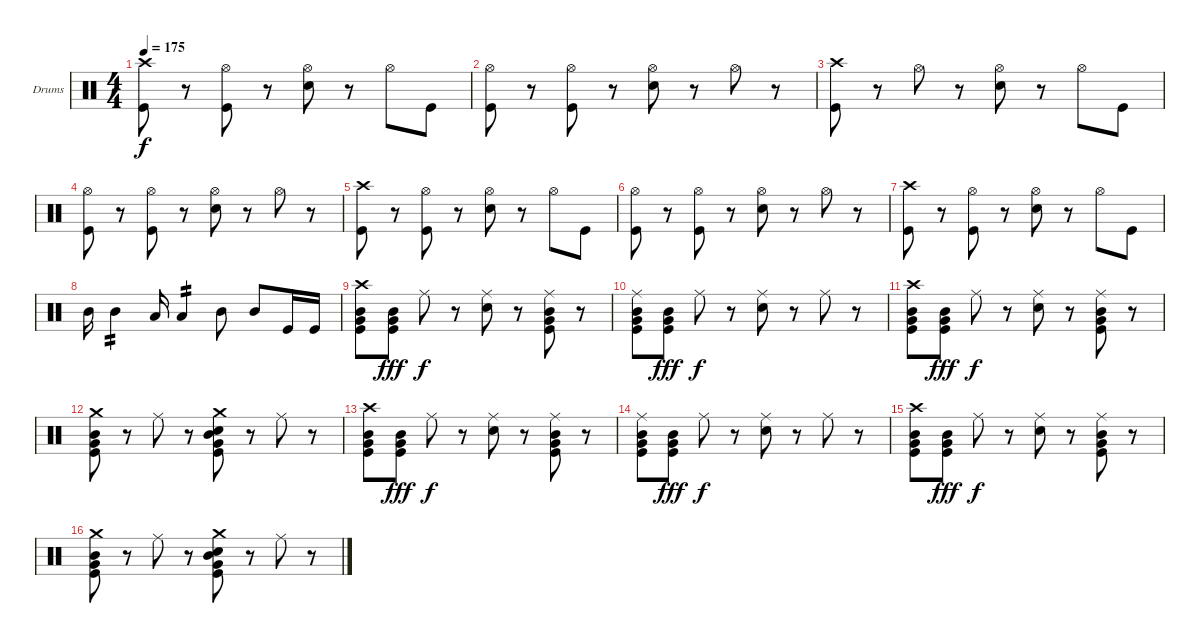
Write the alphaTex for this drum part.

\bracketExtendMode groupsimilarinstruments
\firstSystemTrackNameOrientation horizontal
\otherSystemsTrackNameOrientation horizontal
\track ("Drumkit" "Drums") {instrument percussion}
\staff {score}
\articulation defaults
\ts (4 4)
\tempo 175
\clef neutral
\ks c
("Crash high (hit)" "Kick (hit)").8{dy f} r.8 ("Hi-Hat (open)" "Kick (hit)").8 r.8 ("Hi-Hat (open)" "Snare (hit) 2").8 r.8 "Hi-Hat (open)".8 "Kick (hit)".8 |
("Hi-Hat (open)" "Kick (hit)").8 r.8 ("Hi-Hat (open)" "Kick (hit)").8 r.8 ("Hi-Hat (open)" "Snare (hit) 2").8 r.8 "Hi-Hat (open)".8 r.8 |
("Crash high (hit)" "Kick (hit)").8 r.8 "Hi-Hat (open)".8 r.8 ("Hi-Hat (open)" "Snare (hit) 2").8 r.8 "Hi-Hat (open)".8 "Kick (hit)".8 |
("Hi-Hat (open)" "Kick (hit)").8 r.8 ("Hi-Hat (open)" "Kick (hit)").8 r.8 ("Hi-Hat (open)" "Snare (hit) 2").8 r.8 "Hi-Hat (open)".8 r.8 |
("Crash high (hit)" "Kick (hit)").8 r.8 ("Hi-Hat (open)" "Kick (hit)").8 r.8 ("Hi-Hat (open)" "Snare (hit) 2").8 r.8 "Hi-Hat (open)".8 "Kick (hit)".8 |
("Hi-Hat (open)" "Kick (hit)").8 r.8 ("Hi-Hat (open)" "Kick (hit)").8 r.8 ("Hi-Hat (open)" "Snare (hit) 2").8 r.8 "Hi-Hat (open)".8 r.8 |
("Crash high (hit)" "Kick (hit)").8 r.8 ("Hi-Hat (open)" "Kick (hit)").8 r.8 ("Hi-Hat (open)" "Snare (hit) 2").8 r.8 "Hi-Hat (open)".8 "Kick (hit)".8 |
"Mid Tom (hit)".16 "Mid Tom (hit)".4{tp 2} "Low Tom (hit)".16 "Low Tom (hit)".4{tp 2} "Mid Tom (hit)".8 "Mid Tom (hit)".8 "Kick (hit)".16 "Kick (hit)".16 |
("Crash high (hit)" "Mid Tom (hit)" "Very Low Tom (hit)" "Kick (hit)").8 ("Mid Tom (hit)" "Very Low Tom (hit)" "Kick (hit)").8{dy fff} "Ride (middle)".8{dy f} r.8 ("Ride (middle)" "Snare (hit) 2").8 r.8 ("Ride (middle)" "Mid Tom (hit)" "Very Low Tom (hit)" "Kick (hit)").8 r.8 |
("Ride (middle)" "Mid Tom (hit)" "Very Low Tom (hit)" "Kick (hit)").8 ("Mid Tom (hit)" "Very Low Tom (hit)" "Kick (hit)").8{dy fff} "Ride (middle)".8{dy f} r.8 ("Ride (middle)" "Snare (hit) 2").8 r.8 "Ride (middle)".8 r.8 |
("Crash high (hit)" "Mid Tom (hit)" "Very Low Tom (hit)" "Kick (hit)").8 ("Mid Tom (hit)" "Very Low Tom (hit)" "Kick (hit)").8{dy fff} "Ride (middle)".8{dy f} r.8 ("Ride (middle)" "Snare (hit) 2").8 r.8 ("Ride (middle)" "Mid Tom (hit)" "Very Low Tom (hit)" "Kick (hit)").8 r.8 |
("Crash medium (hit)" "Mid Tom (hit)" "Very Low Tom (hit)" "Kick (hit)").8 r.8 "Ride (middle)".8 r.8 ("Crash medium (hit)" "Snare (hit) 2" "Mid Tom (hit)" "Very Low Tom (hit)" "Kick (hit)").8 r.8 "Ride (middle)".8 r.8 |
("Crash high (hit)" "Mid Tom (hit)" "Very Low Tom (hit)" "Kick (hit)").8 ("Mid Tom (hit)" "Very Low Tom (hit)" "Kick (hit)").8{dy fff} "Ride (middle)".8{dy f} r.8 ("Ride (middle)" "Snare (hit) 2").8 r.8 ("Ride (middle)" "Mid Tom (hit)" "Very Low Tom (hit)" "Kick (hit)").8 r.8 |
("Ride (middle)" "Mid Tom (hit)" "Very Low Tom (hit)" "Kick (hit)").8 ("Mid Tom (hit)" "Very Low Tom (hit)" "Kick (hit)").8{dy fff} "Ride (middle)".8{dy f} r.8 ("Ride (middle)" "Snare (hit) 2").8 r.8 "Ride (middle)".8 r.8 |
("Crash high (hit)" "Mid Tom (hit)" "Very Low Tom (hit)" "Kick (hit)").8 ("Mid Tom (hit)" "Very Low Tom (hit)" "Kick (hit)").8{dy fff} "Ride (middle)".8{dy f} r.8 ("Ride (middle)" "Snare (hit) 2").8 r.8 ("Ride (middle)" "Mid Tom (hit)" "Very Low Tom (hit)" "Kick (hit)").8 r.8 |
("Crash medium (hit)" "Mid Tom (hit)" "Very Low Tom (hit)" "Kick (hit)").8 r.8 "Ride (middle)".8 r.8 ("Crash medium (hit)" "Snare (hit) 2" "Mid Tom (hit)" "Very Low Tom (hit)" "Kick (hit)").8 r.8 "Ride (middle)".8 r.8
